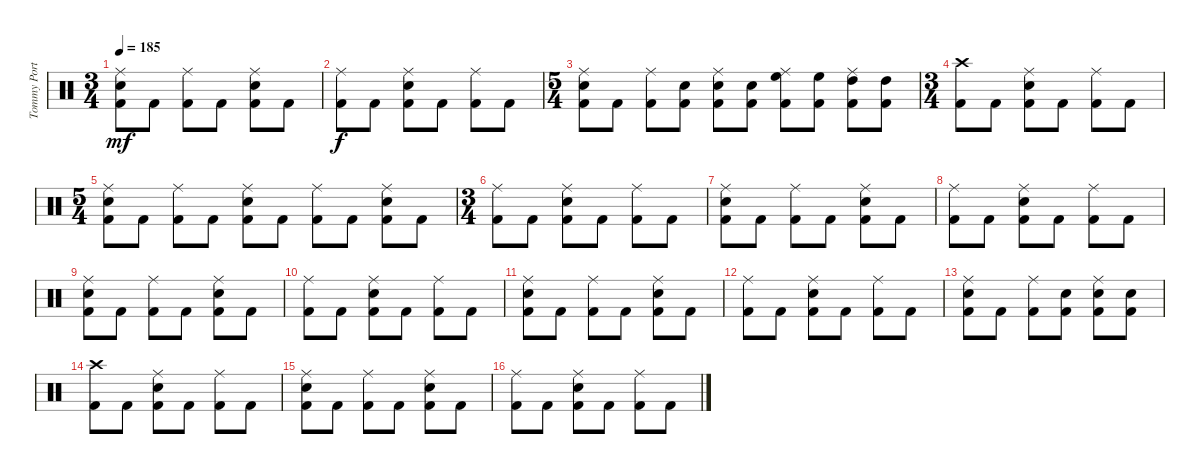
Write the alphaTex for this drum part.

\track ("Tommy Portino" "Tommy Port") {instrument percussion}
\staff {score}
\articulation defaults
\ts (3 4)
\tempo 185
\clef neutral
\ks c
("Ride (middle)" "Snare (hit) 2" "Kick (hit) 2").8{dy mf} "Kick (hit) 2".8 ("Ride (middle)" "Kick (hit) 2").8 "Kick (hit) 2".8 ("Ride (middle)" "Snare (hit) 2" "Kick (hit) 2").8 "Kick (hit) 2".8 |
("Ride (middle)" "Kick (hit) 2").8{dy f} "Kick (hit) 2".8 ("Ride (middle)" "Snare (hit) 2" "Kick (hit) 2").8 "Kick (hit) 2".8 ("Ride (middle)" "Kick (hit) 2").8 "Kick (hit) 2".8 |
\ts (5 4)
("Ride (middle)" "Snare (hit) 2" "Kick (hit) 2").8 "Kick (hit) 2".8 ("Ride (middle)" "Kick (hit) 2").8 ("Snare (hit) 2" "Kick (hit) 2").8 ("Ride (middle)" "Snare (hit) 2" "Kick (hit) 2").8 ("Snare (hit) 2" "Kick (hit) 2").8 ("Ride (middle)" "High Floor Tom (hit)" "Kick (hit) 2").8 ("High Floor Tom (hit)" "Kick (hit) 2").8 ("Ride (middle)" "High Tom (hit)" "Kick (hit) 2").8 ("High Tom (hit)" "Kick (hit) 2").8 |
\ts (3 4)
("Crash high (hit)" "Kick (hit) 2").8 "Kick (hit) 2".8 ("Ride (middle)" "Snare (hit) 2" "Kick (hit) 2").8 "Kick (hit) 2".8 ("Ride (middle)" "Kick (hit) 2").8 "Kick (hit) 2".8 |
\ts (5 4)
("Ride (middle)" "Snare (hit) 2" "Kick (hit) 2").8 "Kick (hit) 2".8 ("Ride (middle)" "Kick (hit) 2").8 "Kick (hit) 2".8 ("Ride (middle)" "Snare (hit) 2" "Kick (hit) 2").8 "Kick (hit) 2".8 ("Ride (middle)" "Kick (hit) 2").8 "Kick (hit) 2".8 ("Ride (middle)" "Snare (hit) 2" "Kick (hit) 2").8 "Kick (hit) 2".8 |
\ts (3 4)
("Ride (middle)" "Kick (hit) 2").8 "Kick (hit) 2".8 ("Ride (middle)" "Snare (hit) 2" "Kick (hit) 2").8 "Kick (hit) 2".8 ("Ride (middle)" "Kick (hit) 2").8 "Kick (hit) 2".8 |
("Ride (middle)" "Snare (hit) 2" "Kick (hit) 2").8 "Kick (hit) 2".8 ("Ride (middle)" "Kick (hit) 2").8 "Kick (hit) 2".8 ("Ride (middle)" "Snare (hit) 2" "Kick (hit) 2").8 "Kick (hit) 2".8 |
("Ride (middle)" "Kick (hit) 2").8 "Kick (hit) 2".8 ("Ride (middle)" "Snare (hit) 2" "Kick (hit) 2").8 "Kick (hit) 2".8 ("Ride (middle)" "Kick (hit) 2").8 "Kick (hit) 2".8 |
("Ride (middle)" "Snare (hit) 2" "Kick (hit) 2").8 "Kick (hit) 2".8 ("Ride (middle)" "Kick (hit) 2").8 "Kick (hit) 2".8 ("Ride (middle)" "Snare (hit) 2" "Kick (hit) 2").8 "Kick (hit) 2".8 |
("Ride (middle)" "Kick (hit) 2").8 "Kick (hit) 2".8 ("Ride (middle)" "Snare (hit) 2" "Kick (hit) 2").8 "Kick (hit) 2".8 ("Ride (middle)" "Kick (hit) 2").8 "Kick (hit) 2".8 |
("Ride (middle)" "Snare (hit) 2" "Kick (hit) 2").8 "Kick (hit) 2".8 ("Ride (middle)" "Kick (hit) 2").8 "Kick (hit) 2".8 ("Ride (middle)" "Snare (hit) 2" "Kick (hit) 2").8 "Kick (hit) 2".8 |
("Ride (middle)" "Kick (hit) 2").8 "Kick (hit) 2".8 ("Ride (middle)" "Snare (hit) 2" "Kick (hit) 2").8 "Kick (hit) 2".8 ("Ride (middle)" "Kick (hit) 2").8 "Kick (hit) 2".8 |
("Ride (middle)" "Snare (hit) 2" "Kick (hit) 2").8 "Kick (hit) 2".8 ("Ride (middle)" "Kick (hit) 2").8 ("Snare (hit) 2" "Kick (hit) 2").8 ("Ride (middle)" "Snare (hit) 2" "Kick (hit) 2").8 ("Snare (hit) 2" "Kick (hit) 2").8 |
("Crash high (hit)" "Kick (hit) 2").8 "Kick (hit) 2".8 ("Ride (middle)" "Snare (hit) 2" "Kick (hit) 2").8 "Kick (hit) 2".8 ("Ride (middle)" "Kick (hit) 2").8 "Kick (hit) 2".8 |
("Ride (middle)" "Snare (hit) 2" "Kick (hit) 2").8 "Kick (hit) 2".8 ("Ride (middle)" "Kick (hit) 2").8 "Kick (hit) 2".8 ("Ride (middle)" "Snare (hit) 2" "Kick (hit) 2").8 "Kick (hit) 2".8 |
("Ride (middle)" "Kick (hit) 2").8 "Kick (hit) 2".8 ("Ride (middle)" "Snare (hit) 2" "Kick (hit) 2").8 "Kick (hit) 2".8 ("Ride (middle)" "Kick (hit) 2").8 "Kick (hit) 2".8
